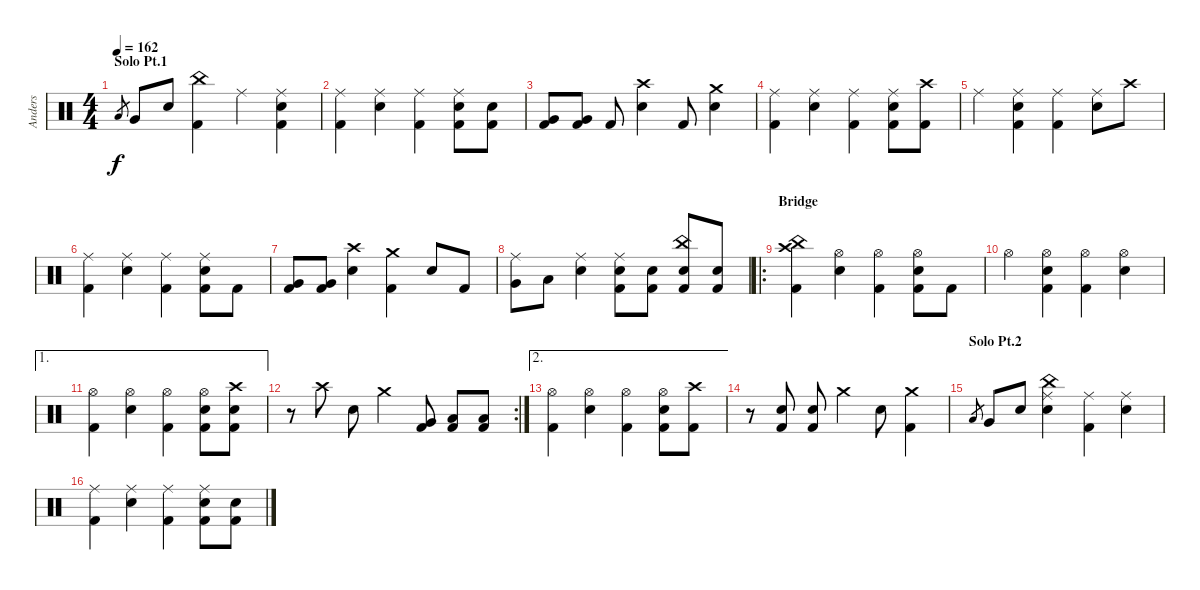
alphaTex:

\track ("Anders" "Anders") {instrument percussion}
\staff {score}
\articulation defaults
\ts (4 4)
\section ("" "Solo Pt.1")
\tempo 162
\clef neutral
\ks c "Low Floor Tom (hit)".8{gr dy f} "Very Low Tom (hit)".8 "Snare (hit) 2".8
("China (hit)" "Kick (hit) 2").4 "Ride (middle)".4 ("Ride (middle)" "Snare (hit) 2" "Kick (hit) 2").4 |
("Ride (middle)" "Kick (hit) 2").4 ("Ride (middle)" "Snare (hit) 2").4 ("Ride (middle)" "Kick (hit) 2").4 ("Ride (middle)" "Snare (hit) 2" "Kick (hit) 2").8 ("Snare (hit) 2" "Kick (hit) 2").8 |
("Very Low Tom (hit)" "Kick (hit) 2").8 ("Very Low Tom (hit)" "Kick (hit) 2").8 "Kick (hit) 2".8 ("Crash high (hit)" "Snare (hit) 2").4 "Kick (hit) 2".8 ("Crash medium (hit)" "Snare (hit) 2").4 |
("Ride (middle)" "Kick (hit) 2").4 ("Ride (middle)" "Snare (hit) 2").4 ("Ride (middle)" "Kick (hit) 2").4 ("Ride (middle)" "Snare (hit) 2" "Kick (hit) 2").8 ("Crash high (hit)" "Kick (hit) 2").8 |
"Ride (middle)".4 ("Ride (middle)" "Snare (hit) 2" "Kick (hit) 2").4 ("Ride (middle)" "Kick (hit) 2").4 ("Ride (middle)" "Snare (hit) 2").8 "Crash high (hit)".8 |
("Ride (middle)" "Kick (hit) 2").4 ("Ride (middle)" "Snare (hit) 2").4 ("Ride (middle)" "Kick (hit) 2").4 ("Ride (middle)" "Snare (hit) 2" "Kick (hit) 2").8 "Kick (hit) 2".8 |
("Very Low Tom (hit)" "Kick (hit) 2").8 ("Very Low Tom (hit)" "Kick (hit) 2").8 ("Crash high (hit)" "Snare (hit) 2").4 ("Crash medium (hit)" "Kick (hit) 2").4 "Snare (hit) 2".8 "Kick (hit) 2".8 |
("Ride (middle)" "Very Low Tom (hit)").8 "Low Floor Tom (hit)".8 ("Ride (middle)" "Snare (hit) 2").4 ("Ride (middle)" "Snare (hit) 2" "Kick (hit) 2").8 ("Kick (hit) 2" "Snare (hit) 2").8 ("China (hit)" "Kick (hit) 2" "Snare (hit) 2").8 ("Kick (hit) 2" "Snare (hit) 2").8 |
\ro
\section ("" "Bridge")
("China (hit)" "Crash high (hit)" "Kick (hit) 2").4 ("Hi-Hat (open)" "Snare (hit) 2").4 ("Hi-Hat (open)" "Kick (hit) 2").4 ("Hi-Hat (open)" "Snare (hit) 2" "Kick (hit) 2").8 "Kick (hit) 2".8 |
"Hi-Hat (open)".4 ("Hi-Hat (open)" "Snare (hit) 2" "Kick (hit) 2").4 ("Hi-Hat (open)" "Kick (hit) 2").4 ("Hi-Hat (open)" "Snare (hit) 2").4 |
\ae 1
("Hi-Hat (open)" "Kick (hit) 2").4 ("Hi-Hat (open)" "Snare (hit) 2").4 ("Hi-Hat (open)" "Kick (hit) 2").4 ("Hi-Hat (open)" "Snare (hit) 2" "Kick (hit) 2").8 ("Crash high (hit)" "Snare (hit) 2" "Kick (hit) 2").8 |
\rc 2
r.8 "Crash high (hit)".8 "Snare (hit) 2".8 "Crash medium (hit)".4 ("Very Low Tom (hit)" "Kick (hit) 2").8 ("Low Floor Tom (hit)" "Kick (hit) 2").8 ("Low Floor Tom (hit)" "Kick (hit) 2").8 |
\ae 2
("Hi-Hat (open)" "Kick (hit) 2").4 ("Hi-Hat (open)" "Snare (hit) 2").4 ("Hi-Hat (open)" "Kick (hit) 2").4 ("Hi-Hat (open)" "Snare (hit) 2" "Kick (hit) 2").8 ("Crash high (hit)" "Kick (hit) 2").8 |
r.8 ("Snare (hit) 2" "Kick (hit) 2").8 ("Snare (hit) 2" "Kick (hit) 2").8 "Crash medium (hit)".4 "Snare (hit) 2".8 ("Crash medium (hit)" "Kick (hit) 2").4 |
\section ("" "Solo Pt.2")
"Low Floor Tom (hit)".8{gr} "Very Low Tom (hit)".8 "Snare (hit) 2".8 ("Ride (middle)" "China (hit)" "Snare (hit) 2").4 ("Ride (middle)" "Kick (hit) 2").4 ("Ride (middle)" "Snare (hit) 2").4 |
("Ride (middle)" "Kick (hit) 2").4 ("Ride (middle)" "Snare (hit) 2").4 ("Ride (middle)" "Kick (hit) 2").4 ("Ride (middle)" "Snare (hit) 2" "Kick (hit) 2").8 ("Snare (hit) 2" "Kick (hit) 2").8
